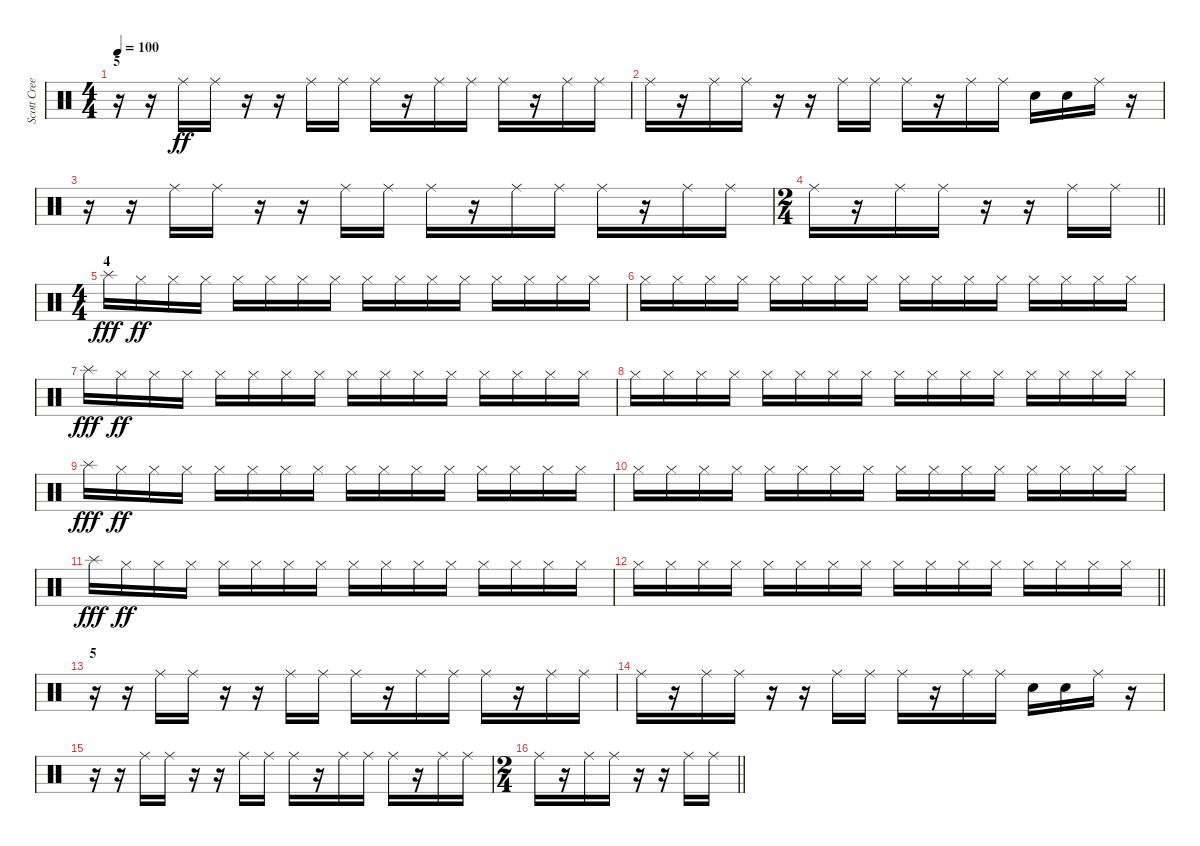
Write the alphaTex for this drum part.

\track ("Scott Creekmore" "Scott Cree") {instrument percussion}
\staff {score}
\articulation defaults
\ts (4 4)
\section ("" "5")
\tempo 100
\clef neutral
\ks c
r.16{dy ff} r.16 "Ride (middle)".16 "Ride (middle)".16 r.16 r.16 "Ride (middle)".16 "Ride (middle)".16 "Ride (middle)".16 r.16 "Ride (middle)".16 "Ride (middle)".16 "Ride (middle)".16 r.16 "Ride (middle)".16 "Ride (middle)".16 |
"Ride (middle)".16 r.16 "Ride (middle)".16 "Ride (middle)".16 r.16 r.16 "Ride (middle)".16 "Ride (middle)".16 "Ride (middle)".16 r.16 "Ride (middle)".16 "Ride (middle)".16 "Electric Snare (hit)".16 "Electric Snare (hit)".16 "Ride (middle)".16 r.16 |
r.16 r.16 "Ride (middle)".16 "Ride (middle)".16 r.16 r.16 "Ride (middle)".16 "Ride (middle)".16 "Ride (middle)".16 r.16 "Ride (middle)".16 "Ride (middle)".16 "Ride (middle)".16 r.16 "Ride (middle)".16 "Ride (middle)".16 |
\ts (2 4)
\barLineRight lightlight "Ride (middle)".16
r.16 "Ride (middle)".16 "Ride (middle)".16 r.16 r.16 "Ride (middle)".16 "Ride (middle)".16 |
\ts (4 4)
\section ("" "4")
"Splash (hit)".16{dy fff} "Hi-Hat (closed)".16{dy ff} "Hi-Hat (closed)".16 "Hi-Hat (closed)".16 "Hi-Hat (closed)".16 "Hi-Hat (closed)".16 "Hi-Hat (closed)".16 "Hi-Hat (closed)".16 "Hi-Hat (closed)".16 "Hi-Hat (closed)".16 "Hi-Hat (closed)".16 "Hi-Hat (closed)".16 "Hi-Hat (closed)".16 "Hi-Hat (closed)".16 "Hi-Hat (closed)".16 "Hi-Hat (closed)".16 |
"Hi-Hat (closed)".16 "Hi-Hat (closed)".16 "Hi-Hat (closed)".16 "Hi-Hat (closed)".16 "Hi-Hat (closed)".16 "Hi-Hat (closed)".16 "Hi-Hat (closed)".16 "Hi-Hat (closed)".16 "Hi-Hat (closed)".16 "Hi-Hat (closed)".16 "Hi-Hat (closed)".16 "Hi-Hat (closed)".16 "Hi-Hat (closed)".16 "Hi-Hat (closed)".16 "Hi-Hat (closed)".16 "Hi-Hat (closed)".16 |
"Splash (hit)".16{dy fff} "Hi-Hat (closed)".16{dy ff} "Hi-Hat (closed)".16 "Hi-Hat (closed)".16 "Hi-Hat (closed)".16 "Hi-Hat (closed)".16 "Hi-Hat (closed)".16 "Hi-Hat (closed)".16 "Hi-Hat (closed)".16 "Hi-Hat (closed)".16 "Hi-Hat (closed)".16 "Hi-Hat (closed)".16 "Hi-Hat (closed)".16 "Hi-Hat (closed)".16 "Hi-Hat (closed)".16 "Hi-Hat (closed)".16 |
"Hi-Hat (closed)".16 "Hi-Hat (closed)".16 "Hi-Hat (closed)".16 "Hi-Hat (closed)".16 "Hi-Hat (closed)".16 "Hi-Hat (closed)".16 "Hi-Hat (closed)".16 "Hi-Hat (closed)".16 "Hi-Hat (closed)".16 "Hi-Hat (closed)".16 "Hi-Hat (closed)".16 "Hi-Hat (closed)".16 "Hi-Hat (closed)".16 "Hi-Hat (closed)".16 "Hi-Hat (closed)".16 "Hi-Hat (closed)".16 |
"Splash (hit)".16{dy fff} "Hi-Hat (closed)".16{dy ff} "Hi-Hat (closed)".16 "Hi-Hat (closed)".16 "Hi-Hat (closed)".16 "Hi-Hat (closed)".16 "Hi-Hat (closed)".16 "Hi-Hat (closed)".16 "Hi-Hat (closed)".16 "Hi-Hat (closed)".16 "Hi-Hat (closed)".16 "Hi-Hat (closed)".16 "Hi-Hat (closed)".16 "Hi-Hat (closed)".16 "Hi-Hat (closed)".16 "Hi-Hat (closed)".16 |
"Hi-Hat (closed)".16 "Hi-Hat (closed)".16 "Hi-Hat (closed)".16 "Hi-Hat (closed)".16 "Hi-Hat (closed)".16 "Hi-Hat (closed)".16 "Hi-Hat (closed)".16 "Hi-Hat (closed)".16 "Hi-Hat (closed)".16 "Hi-Hat (closed)".16 "Hi-Hat (closed)".16 "Hi-Hat (closed)".16 "Hi-Hat (closed)".16 "Hi-Hat (closed)".16 "Hi-Hat (closed)".16 "Hi-Hat (closed)".16 |
"Splash (hit)".16{dy fff} "Hi-Hat (closed)".16{dy ff} "Hi-Hat (closed)".16 "Hi-Hat (closed)".16 "Hi-Hat (closed)".16 "Hi-Hat (closed)".16 "Hi-Hat (closed)".16 "Hi-Hat (closed)".16 "Hi-Hat (closed)".16 "Hi-Hat (closed)".16 "Hi-Hat (closed)".16 "Hi-Hat (closed)".16 "Hi-Hat (closed)".16 "Hi-Hat (closed)".16 "Hi-Hat (closed)".16 "Hi-Hat (closed)".16 |
\barLineRight lightlight "Hi-Hat (closed)".16 "Hi-Hat (closed)".16 "Hi-Hat (closed)".16 "Hi-Hat (closed)".16 "Hi-Hat (closed)".16 "Hi-Hat (closed)".16 "Hi-Hat (closed)".16 "Hi-Hat (closed)".16 "Hi-Hat (closed)".16 "Hi-Hat (closed)".16 "Hi-Hat (closed)".16 "Hi-Hat (closed)".16 "Hi-Hat (closed)".16 "Hi-Hat (closed)".16 "Hi-Hat (closed)".16 "Hi-Hat (closed)".16
|
\section ("" "5")
r.16 r.16 "Ride (middle)".16 "Ride (middle)".16 r.16 r.16 "Ride (middle)".16 "Ride (middle)".16 "Ride (middle)".16 r.16 "Ride (middle)".16 "Ride (middle)".16 "Ride (middle)".16 r.16 "Ride (middle)".16 "Ride (middle)".16 |
"Ride (middle)".16 r.16 "Ride (middle)".16 "Ride (middle)".16 r.16 r.16 "Ride (middle)".16 "Ride (middle)".16 "Ride (middle)".16 r.16 "Ride (middle)".16 "Ride (middle)".16 "Electric Snare (hit)".16 "Electric Snare (hit)".16 "Ride (middle)".16 r.16 |
r.16 r.16 "Ride (middle)".16 "Ride (middle)".16 r.16 r.16 "Ride (middle)".16 "Ride (middle)".16 "Ride (middle)".16 r.16 "Ride (middle)".16 "Ride (middle)".16 "Ride (middle)".16 r.16 "Ride (middle)".16 "Ride (middle)".16 |
\ts (2 4)
\barLineRight lightlight "Ride (middle)".16
r.16 "Ride (middle)".16 "Ride (middle)".16 r.16 r.16 "Ride (middle)".16 "Ride (middle)".16
